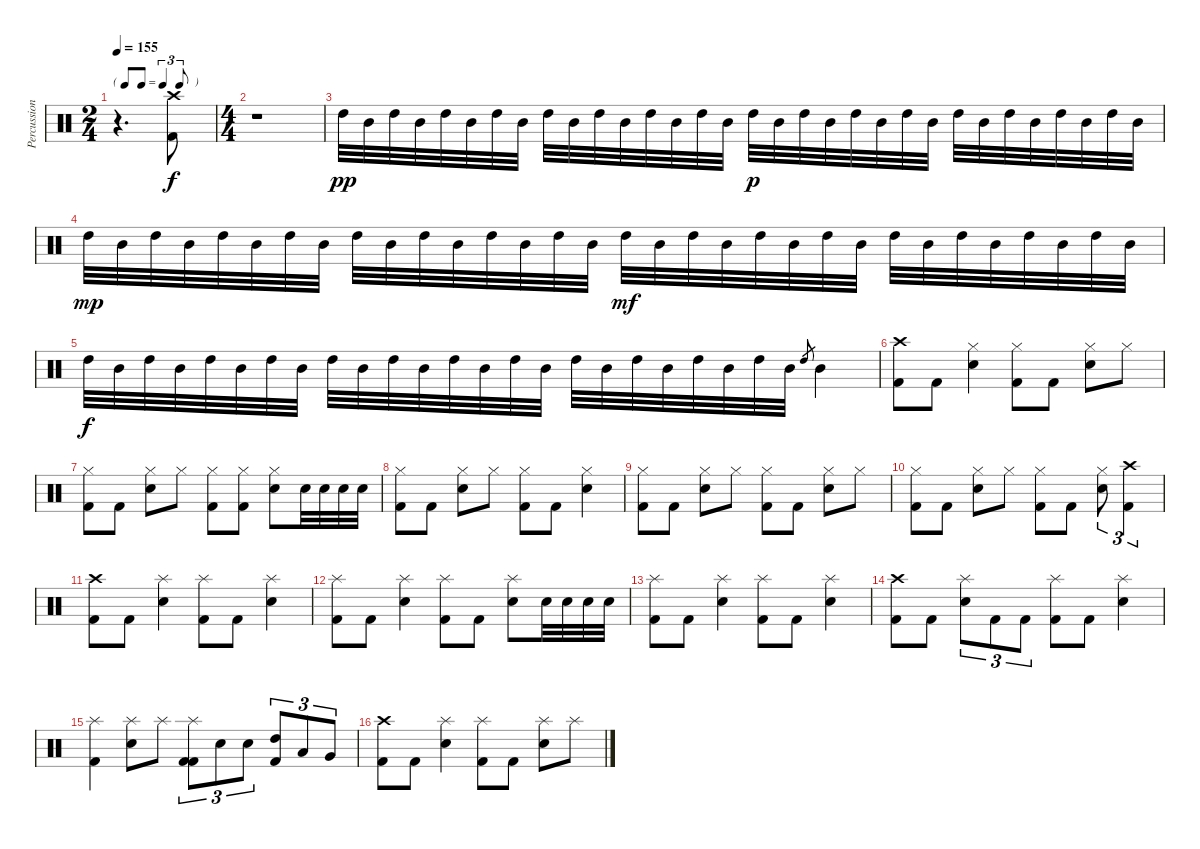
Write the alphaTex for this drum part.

\track ("Percussion" "Percussion") {instrument percussion}
\staff {score}
\articulation defaults
\ts (2 4)
\tf triplet8th
\tempo 155
\clef neutral
\ks c
r.4{d dy f} ("Kick (hit) 2" "Crash high (hit)").8 |
\ts (4 4)
r.1 |
"High Tom (hit)".32{dy pp} "Mid Tom (hit)".32 "High Tom (hit)".32 "Mid Tom (hit)".32 "High Tom (hit)".32 "Mid Tom (hit)".32 "High Tom (hit)".32 "Mid Tom (hit)".32 "High Tom (hit)".32 "Mid Tom (hit)".32 "High Tom (hit)".32 "Mid Tom (hit)".32 "High Tom (hit)".32 "Mid Tom (hit)".32 "High Tom (hit)".32 "Mid Tom (hit)".32 "High Tom (hit)".32{dy p} "Mid Tom (hit)".32 "High Tom (hit)".32 "Mid Tom (hit)".32 "High Tom (hit)".32 "Mid Tom (hit)".32 "High Tom (hit)".32 "Mid Tom (hit)".32 "High Tom (hit)".32 "Mid Tom (hit)".32 "High Tom (hit)".32 "Mid Tom (hit)".32 "High Tom (hit)".32 "Mid Tom (hit)".32 "High Tom (hit)".32 "Mid Tom (hit)".32 |
"High Tom (hit)".32{dy mp} "Mid Tom (hit)".32 "High Tom (hit)".32 "Mid Tom (hit)".32 "High Tom (hit)".32 "Mid Tom (hit)".32 "High Tom (hit)".32 "Mid Tom (hit)".32 "High Tom (hit)".32 "Mid Tom (hit)".32 "High Tom (hit)".32 "Mid Tom (hit)".32 "High Tom (hit)".32 "Mid Tom (hit)".32 "High Tom (hit)".32 "Mid Tom (hit)".32 "High Tom (hit)".32{dy mf} "Mid Tom (hit)".32 "High Tom (hit)".32 "Mid Tom (hit)".32 "High Tom (hit)".32 "Mid Tom (hit)".32 "High Tom (hit)".32 "Mid Tom (hit)".32 "High Tom (hit)".32 "Mid Tom (hit)".32 "High Tom (hit)".32 "Mid Tom (hit)".32 "High Tom (hit)".32 "Mid Tom (hit)".32 "High Tom (hit)".32 "Mid Tom (hit)".32 |
"High Tom (hit)".32{dy f} "Mid Tom (hit)".32 "High Tom (hit)".32 "Mid Tom (hit)".32 "High Tom (hit)".32 "Mid Tom (hit)".32 "High Tom (hit)".32 "Mid Tom (hit)".32 "High Tom (hit)".32 "Mid Tom (hit)".32 "High Tom (hit)".32 "Mid Tom (hit)".32 "High Tom (hit)".32 "Mid Tom (hit)".32 "High Tom (hit)".32 "Mid Tom (hit)".32 "High Tom (hit)".32 "Mid Tom (hit)".32 "High Tom (hit)".32 "Mid Tom (hit)".32 "High Tom (hit)".32 "Mid Tom (hit)".32 "High Tom (hit)".32 "Mid Tom (hit)".32 "High Tom (hit)".8{gr} "Mid Tom (hit)".4 |
("Kick (hit) 2" "Crash high (hit)").8 "Kick (hit) 2".8 ("Snare (hit) 2" "Hi-Hat (closed)").4 ("Kick (hit) 2" "Hi-Hat (closed)").8 "Kick (hit) 2".8 ("Snare (hit) 2" "Hi-Hat (closed)").8 "Hi-Hat (closed)".8 |
("Kick (hit) 2" "Hi-Hat (closed)").8 "Kick (hit) 2".8 ("Snare (hit) 2" "Hi-Hat (closed)").8 "Hi-Hat (closed)".8 ("Kick (hit) 2" "Hi-Hat (closed)").8 ("Kick (hit) 2" "Hi-Hat (closed)").8 ("Snare (hit) 2" "Hi-Hat (closed)").8 "Snare (hit) 2".32 "Snare (hit) 2".32 "Snare (hit) 2".32 "Snare (hit) 2".32 |
("Kick (hit) 2" "Hi-Hat (closed)").8 "Kick (hit) 2".8 ("Snare (hit) 2" "Hi-Hat (closed)").8 "Hi-Hat (closed)".8 ("Kick (hit) 2" "Hi-Hat (closed)").8 "Kick (hit) 2".8 ("Snare (hit) 2" "Hi-Hat (closed)").4 |
("Kick (hit) 2" "Hi-Hat (closed)").8 "Kick (hit) 2".8 ("Snare (hit) 2" "Hi-Hat (closed)").8 "Hi-Hat (closed)".8 ("Kick (hit) 2" "Hi-Hat (closed)").8 "Kick (hit) 2".8 ("Snare (hit) 2" "Hi-Hat (closed)").8 "Hi-Hat (closed)".8 |
("Kick (hit) 2" "Hi-Hat (closed)").8 "Kick (hit) 2".8 ("Snare (hit) 2" "Hi-Hat (closed)").8 "Hi-Hat (closed)".8 ("Kick (hit) 2" "Hi-Hat (closed)").8 "Kick (hit) 2".8 ("Snare (hit) 2" "Hi-Hat (closed)").8{tu (3 2)} ("Kick (hit) 2" "Crash high (hit)").4{tu (3 2)} |
("Kick (hit) 2" "Crash high (hit)").8 "Kick (hit) 2".8 ("Snare (hit) 2" "Splash (hit)").4 ("Kick (hit) 2" "Splash (hit)").8 "Kick (hit) 2".8 ("Snare (hit) 2" "Splash (hit)").4 |
("Kick (hit) 2" "Splash (hit)").8 "Kick (hit) 2".8 ("Snare (hit) 2" "Splash (hit)").4 ("Kick (hit) 2" "Splash (hit)").8 "Kick (hit) 2".8 ("Snare (hit) 2" "Splash (hit)").8 "Snare (hit) 2".32 "Snare (hit) 2".32 "Snare (hit) 2".32 "Snare (hit) 2".32 |
("Kick (hit) 2" "Splash (hit)").8 "Kick (hit) 2".8 ("Snare (hit) 2" "Splash (hit)").4 ("Kick (hit) 2" "Splash (hit)").8 "Kick (hit) 2".8 ("Snare (hit) 2" "Splash (hit)").4 |
("Kick (hit) 2" "Crash high (hit)").8 "Kick (hit) 2".8 ("Snare (hit) 2" "Splash (hit)").8{tu (3 2)} "Kick (hit) 2".8{tu (3 2)} "Kick (hit) 2".8{tu (3 2)} ("Kick (hit) 2" "Splash (hit)").8 "Kick (hit) 2".8 ("Snare (hit) 2" "Splash (hit)").4 |
("Kick (hit) 2" "Splash (hit)").4 ("Snare (hit) 2" "Splash (hit)").8 "Splash (hit)".8 ("Kick (hit) 2" "Kick (hit) 2" "Splash (hit)").8{tu (3 2)} "Snare (hit) 2".8{tu (3 2)} "Snare (hit) 2".8{tu (3 2)} ("High Tom (hit)" "Kick (hit) 2").8{tu (3 2)} "Low Tom (hit)".8{tu (3 2)} "Very Low Tom (hit)".8{tu (3 2)} |
("Kick (hit) 2" "Crash high (hit)").8 "Kick (hit) 2".8 ("Snare (hit) 2" "Splash (hit)").4 ("Kick (hit) 2" "Splash (hit)").8 "Kick (hit) 2".8 ("Snare (hit) 2" "Splash (hit)").8 "Splash (hit)".8
